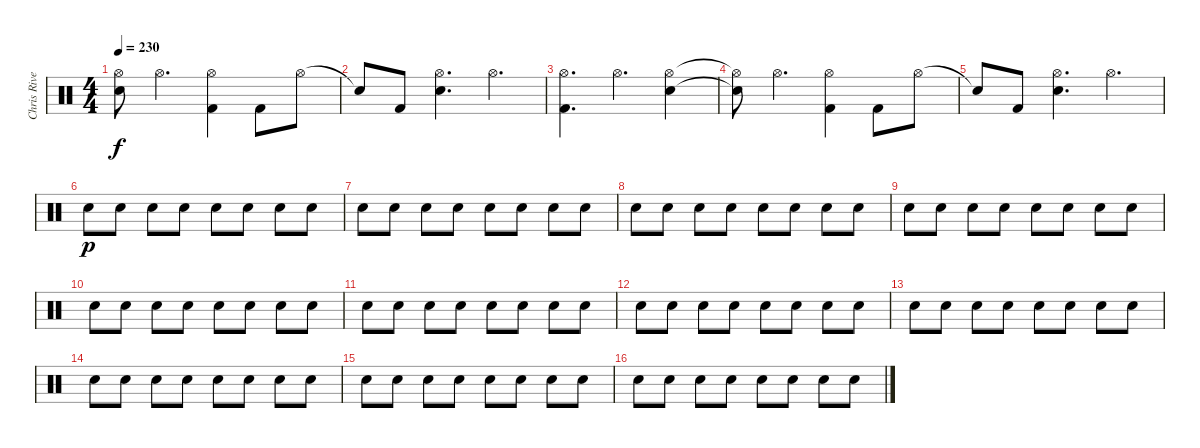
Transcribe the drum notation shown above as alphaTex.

\track ("Chris Rivers" "Chris Rive") {instrument percussion}
\staff {score}
\articulation defaults
\ts (4 4)
\tempo 230
\clef neutral
\ks c
("Hi-Hat (open)"{t} "Snare (hit)"{t}).8{dy f} "Hi-Hat (open)".4{d} ("Hi-Hat (open)" "Kick (hit) 2").4 "Kick (hit) 2".8 "Hi-Hat (open)".8 |
"Snare (hit)"{t}.8 "Kick (hit) 2".8 ("Hi-Hat (open)" "Electric Snare (hit)").4{d} "Hi-Hat (open)".4{d} |
("Hi-Hat (open)" "Kick (hit) 2").4{d} "Hi-Hat (open)".4{d} ("Hi-Hat (open)" "Electric Snare (hit)").4 |
("Hi-Hat (open)"{t} "Snare (hit)"{t}).8 "Hi-Hat (open)".4{d} ("Hi-Hat (open)" "Kick (hit) 2").4 "Kick (hit) 2".8 "Hi-Hat (open)".8 |
"Snare (hit)"{t}.8 "Kick (hit) 2".8 ("Hi-Hat (open)" "Electric Snare (hit)").4{d} "Hi-Hat (open)".4{d} |
"Electric Snare (hit)".8{dy p} "Electric Snare (hit)".8 "Electric Snare (hit)".8 "Electric Snare (hit)".8 "Electric Snare (hit)".8 "Electric Snare (hit)".8 "Electric Snare (hit)".8 "Electric Snare (hit)".8 |
"Electric Snare (hit)".8 "Electric Snare (hit)".8 "Electric Snare (hit)".8 "Electric Snare (hit)".8 "Electric Snare (hit)".8 "Electric Snare (hit)".8 "Electric Snare (hit)".8 "Electric Snare (hit)".8 |
"Electric Snare (hit)".8 "Electric Snare (hit)".8 "Electric Snare (hit)".8 "Electric Snare (hit)".8 "Electric Snare (hit)".8 "Electric Snare (hit)".8 "Electric Snare (hit)".8 "Electric Snare (hit)".8 |
"Electric Snare (hit)".8 "Electric Snare (hit)".8 "Electric Snare (hit)".8 "Electric Snare (hit)".8 "Electric Snare (hit)".8 "Electric Snare (hit)".8 "Electric Snare (hit)".8 "Electric Snare (hit)".8 |
"Electric Snare (hit)".8 "Electric Snare (hit)".8 "Electric Snare (hit)".8 "Electric Snare (hit)".8 "Electric Snare (hit)".8 "Electric Snare (hit)".8 "Electric Snare (hit)".8 "Electric Snare (hit)".8 |
"Electric Snare (hit)".8 "Electric Snare (hit)".8 "Electric Snare (hit)".8 "Electric Snare (hit)".8 "Electric Snare (hit)".8 "Electric Snare (hit)".8 "Electric Snare (hit)".8 "Electric Snare (hit)".8 |
"Electric Snare (hit)".8 "Electric Snare (hit)".8 "Electric Snare (hit)".8 "Electric Snare (hit)".8 "Electric Snare (hit)".8 "Electric Snare (hit)".8 "Electric Snare (hit)".8 "Electric Snare (hit)".8 |
"Electric Snare (hit)".8 "Electric Snare (hit)".8 "Electric Snare (hit)".8 "Electric Snare (hit)".8 "Electric Snare (hit)".8 "Electric Snare (hit)".8 "Electric Snare (hit)".8 "Electric Snare (hit)".8 |
"Electric Snare (hit)".8 "Electric Snare (hit)".8 "Electric Snare (hit)".8 "Electric Snare (hit)".8 "Electric Snare (hit)".8 "Electric Snare (hit)".8 "Electric Snare (hit)".8 "Electric Snare (hit)".8 |
"Electric Snare (hit)".8 "Electric Snare (hit)".8 "Electric Snare (hit)".8 "Electric Snare (hit)".8 "Electric Snare (hit)".8 "Electric Snare (hit)".8 "Electric Snare (hit)".8 "Electric Snare (hit)".8 |
"Electric Snare (hit)".8 "Electric Snare (hit)".8 "Electric Snare (hit)".8 "Electric Snare (hit)".8 "Electric Snare (hit)".8 "Electric Snare (hit)".8 "Electric Snare (hit)".8 "Electric Snare (hit)".8
